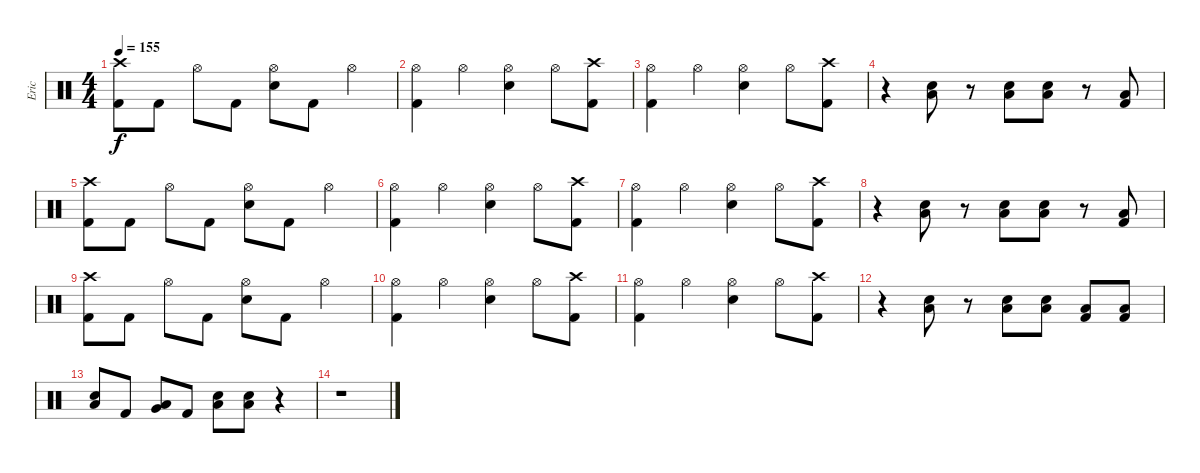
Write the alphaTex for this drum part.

\track ("Eric" "Eric") {instrument percussion}
\staff {score}
\articulation defaults
\ts (4 4)
\tempo 155
\clef neutral
\ks c
("Crash high (hit)" "Kick (hit) 2").8{dy f} "Kick (hit) 2".8 "Hi-Hat (open)".8 "Kick (hit) 2".8 ("Hi-Hat (open)" "Electric Snare (hit)").8 "Kick (hit) 2".8 "Hi-Hat (open)".4 |
("Hi-Hat (open)" "Kick (hit) 2").4 "Hi-Hat (open)".4 ("Hi-Hat (open)" "Electric Snare (hit)").4 "Hi-Hat (open)".8 ("Crash high (hit)" "Kick (hit) 2").8 |
("Hi-Hat (open)" "Kick (hit) 2").4 "Hi-Hat (open)".4 ("Hi-Hat (open)" "Electric Snare (hit)").4 "Hi-Hat (open)".8 ("Crash high (hit)" "Kick (hit) 2").8 |
r.4 ("Low Floor Tom (hit)" "Electric Snare (hit)").8 r.8 ("Low Floor Tom (hit)" "Electric Snare (hit)").8 ("Low Floor Tom (hit)" "Electric Snare (hit)").8 r.8 ("Low Floor Tom (hit)" "Kick (hit) 2").8 |
("Crash high (hit)" "Kick (hit) 2").8 "Kick (hit) 2".8 "Hi-Hat (open)".8 "Kick (hit) 2".8 ("Hi-Hat (open)" "Electric Snare (hit)").8 "Kick (hit) 2".8 "Hi-Hat (open)".4 |
("Hi-Hat (open)" "Kick (hit) 2").4 "Hi-Hat (open)".4 ("Hi-Hat (open)" "Electric Snare (hit)").4 "Hi-Hat (open)".8 ("Crash high (hit)" "Kick (hit) 2").8 |
("Hi-Hat (open)" "Kick (hit) 2").4 "Hi-Hat (open)".4 ("Hi-Hat (open)" "Electric Snare (hit)").4 "Hi-Hat (open)".8 ("Crash high (hit)" "Kick (hit) 2").8 |
r.4 ("Low Floor Tom (hit)" "Electric Snare (hit)").8 r.8 ("Low Floor Tom (hit)" "Electric Snare (hit)").8 ("Low Floor Tom (hit)" "Electric Snare (hit)").8 r.8 ("Low Floor Tom (hit)" "Kick (hit) 2").8 |
("Crash high (hit)" "Kick (hit) 2").8 "Kick (hit) 2".8 "Hi-Hat (open)".8 "Kick (hit) 2".8 ("Hi-Hat (open)" "Electric Snare (hit)").8 "Kick (hit) 2".8 "Hi-Hat (open)".4 |
("Hi-Hat (open)" "Kick (hit) 2").4 "Hi-Hat (open)".4 ("Hi-Hat (open)" "Electric Snare (hit)").4 "Hi-Hat (open)".8 ("Crash high (hit)" "Kick (hit) 2").8 |
("Hi-Hat (open)" "Kick (hit) 2").4 "Hi-Hat (open)".4 ("Hi-Hat (open)" "Electric Snare (hit)").4 "Hi-Hat (open)".8 ("Crash high (hit)" "Kick (hit) 2").8 |
r.4 ("Low Floor Tom (hit)" "Electric Snare (hit)").8 r.8 ("Low Floor Tom (hit)" "Electric Snare (hit)").8 ("Low Floor Tom (hit)" "Electric Snare (hit)").8 ("Low Floor Tom (hit)" "Kick (hit) 2").8 ("Low Floor Tom (hit)" "Kick (hit) 2").8 |
("Low Tom (hit)" "Electric Snare (hit)").8 "Kick (hit) 2".8 ("Very Low Tom (hit)" "Low Floor Tom (hit)").8 "Kick (hit) 2".8 ("Low Floor Tom (hit)" "Electric Snare (hit)").8 ("Low Floor Tom (hit)" "Electric Snare (hit)").8 r.4 |
r.1
